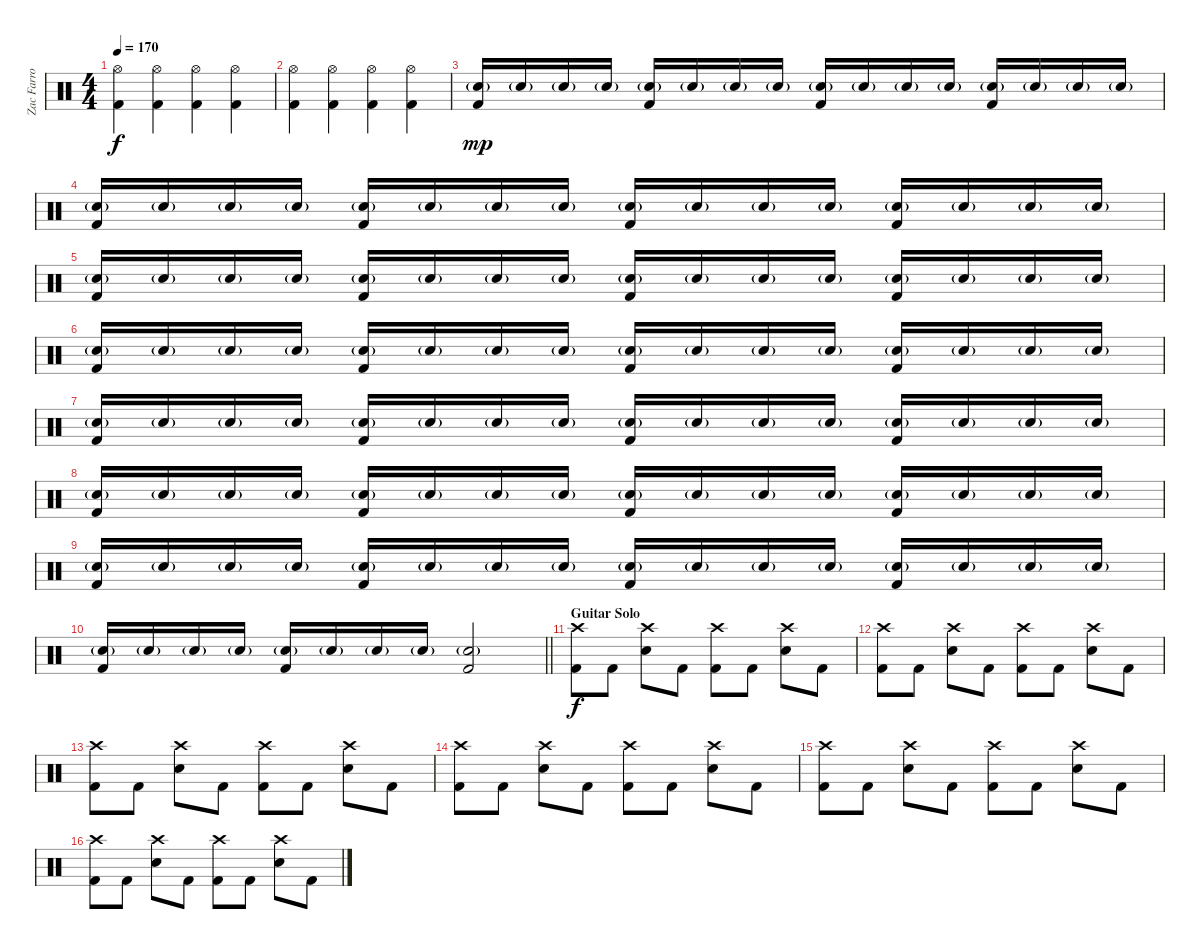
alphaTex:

\track ("Zac Farro (Percussion)" "Zac Farro ") {instrument percussion}
\staff {score}
\articulation defaults
\ts (4 4)
\tempo 170
\clef neutral
\ks c
("Hi-Hat (open)" "Kick (hit) 2").4{dy f} ("Hi-Hat (open)" "Kick (hit) 2").4 ("Hi-Hat (open)" "Kick (hit) 2").4 ("Hi-Hat (open)" "Kick (hit) 2").4 |
("Hi-Hat (open)" "Kick (hit) 2").4 ("Hi-Hat (open)" "Kick (hit) 2").4 ("Hi-Hat (open)" "Kick (hit) 2").4 ("Hi-Hat (open)" "Kick (hit) 2").4 |
("Electric Snare (hit)"{g} "Kick (hit) 2").16{dy mp} "Electric Snare (hit)"{g}.16 "Electric Snare (hit)"{g}.16 "Electric Snare (hit)"{g}.16 ("Electric Snare (hit)"{g} "Kick (hit) 2").16 "Electric Snare (hit)"{g}.16 "Electric Snare (hit)"{g}.16 "Electric Snare (hit)"{g}.16 ("Electric Snare (hit)"{g} "Kick (hit) 2").16 "Electric Snare (hit)"{g}.16 "Electric Snare (hit)"{g}.16 "Electric Snare (hit)"{g}.16 ("Electric Snare (hit)"{g} "Kick (hit) 2").16 "Electric Snare (hit)"{g}.16 "Electric Snare (hit)"{g}.16 "Electric Snare (hit)"{g}.16 |
("Electric Snare (hit)"{g} "Kick (hit) 2").16 "Electric Snare (hit)"{g}.16 "Electric Snare (hit)"{g}.16 "Electric Snare (hit)"{g}.16 ("Electric Snare (hit)"{g} "Kick (hit) 2").16 "Electric Snare (hit)"{g}.16 "Electric Snare (hit)"{g}.16 "Electric Snare (hit)"{g}.16 ("Electric Snare (hit)"{g} "Kick (hit) 2").16 "Electric Snare (hit)"{g}.16 "Electric Snare (hit)"{g}.16 "Electric Snare (hit)"{g}.16 ("Electric Snare (hit)"{g} "Kick (hit) 2").16 "Electric Snare (hit)"{g}.16 "Electric Snare (hit)"{g}.16 "Electric Snare (hit)"{g}.16 |
("Electric Snare (hit)"{g} "Kick (hit) 2").16 "Electric Snare (hit)"{g}.16 "Electric Snare (hit)"{g}.16 "Electric Snare (hit)"{g}.16 ("Electric Snare (hit)"{g} "Kick (hit) 2").16 "Electric Snare (hit)"{g}.16 "Electric Snare (hit)"{g}.16 "Electric Snare (hit)"{g}.16 ("Electric Snare (hit)"{g} "Kick (hit) 2").16 "Electric Snare (hit)"{g}.16 "Electric Snare (hit)"{g}.16 "Electric Snare (hit)"{g}.16 ("Electric Snare (hit)"{g} "Kick (hit) 2").16 "Electric Snare (hit)"{g}.16 "Electric Snare (hit)"{g}.16 "Electric Snare (hit)"{g}.16 |
("Electric Snare (hit)"{g} "Kick (hit) 2").16 "Electric Snare (hit)"{g}.16 "Electric Snare (hit)"{g}.16 "Electric Snare (hit)"{g}.16 ("Electric Snare (hit)"{g} "Kick (hit) 2").16 "Electric Snare (hit)"{g}.16 "Electric Snare (hit)"{g}.16 "Electric Snare (hit)"{g}.16 ("Electric Snare (hit)"{g} "Kick (hit) 2").16 "Electric Snare (hit)"{g}.16 "Electric Snare (hit)"{g}.16 "Electric Snare (hit)"{g}.16 ("Electric Snare (hit)"{g} "Kick (hit) 2").16 "Electric Snare (hit)"{g}.16 "Electric Snare (hit)"{g}.16 "Electric Snare (hit)"{g}.16 |
("Electric Snare (hit)"{g} "Kick (hit) 2").16 "Electric Snare (hit)"{g}.16 "Electric Snare (hit)"{g}.16 "Electric Snare (hit)"{g}.16 ("Electric Snare (hit)"{g} "Kick (hit) 2").16 "Electric Snare (hit)"{g}.16 "Electric Snare (hit)"{g}.16 "Electric Snare (hit)"{g}.16 ("Electric Snare (hit)"{g} "Kick (hit) 2").16 "Electric Snare (hit)"{g}.16 "Electric Snare (hit)"{g}.16 "Electric Snare (hit)"{g}.16 ("Electric Snare (hit)"{g} "Kick (hit) 2").16 "Electric Snare (hit)"{g}.16 "Electric Snare (hit)"{g}.16 "Electric Snare (hit)"{g}.16 |
("Electric Snare (hit)"{g} "Kick (hit) 2").16 "Electric Snare (hit)"{g}.16 "Electric Snare (hit)"{g}.16 "Electric Snare (hit)"{g}.16 ("Electric Snare (hit)"{g} "Kick (hit) 2").16 "Electric Snare (hit)"{g}.16 "Electric Snare (hit)"{g}.16 "Electric Snare (hit)"{g}.16 ("Electric Snare (hit)"{g} "Kick (hit) 2").16 "Electric Snare (hit)"{g}.16 "Electric Snare (hit)"{g}.16 "Electric Snare (hit)"{g}.16 ("Electric Snare (hit)"{g} "Kick (hit) 2").16 "Electric Snare (hit)"{g}.16 "Electric Snare (hit)"{g}.16 "Electric Snare (hit)"{g}.16 |
("Electric Snare (hit)"{g} "Kick (hit) 2").16 "Electric Snare (hit)"{g}.16 "Electric Snare (hit)"{g}.16 "Electric Snare (hit)"{g}.16 ("Electric Snare (hit)"{g} "Kick (hit) 2").16 "Electric Snare (hit)"{g}.16 "Electric Snare (hit)"{g}.16 "Electric Snare (hit)"{g}.16 ("Electric Snare (hit)"{g} "Kick (hit) 2").16 "Electric Snare (hit)"{g}.16 "Electric Snare (hit)"{g}.16 "Electric Snare (hit)"{g}.16 ("Electric Snare (hit)"{g} "Kick (hit) 2").16 "Electric Snare (hit)"{g}.16 "Electric Snare (hit)"{g}.16 "Electric Snare (hit)"{g}.16 |
\barLineRight lightlight
("Electric Snare (hit)"{g} "Kick (hit) 2").16 "Electric Snare (hit)"{g}.16 "Electric Snare (hit)"{g}.16 "Electric Snare (hit)"{g}.16 ("Electric Snare (hit)"{g} "Kick (hit) 2").16 "Electric Snare (hit)"{g}.16 "Electric Snare (hit)"{g}.16 "Electric Snare (hit)"{g}.16 ("Electric Snare (hit)"{g} "Kick (hit) 2").2 |
\section ("" "Guitar Solo")
("Crash high (hit)" "Kick (hit) 2").8{dy f} "Kick (hit) 2".8 ("Crash high (hit)" "Electric Snare (hit)").8 "Kick (hit) 2".8 ("Crash high (hit)" "Kick (hit) 2").8 "Kick (hit) 2".8 ("Crash high (hit)" "Electric Snare (hit)").8 "Kick (hit) 2".8 |
("Crash high (hit)" "Kick (hit) 2").8 "Kick (hit) 2".8 ("Crash high (hit)" "Electric Snare (hit)").8 "Kick (hit) 2".8 ("Crash high (hit)" "Kick (hit) 2").8 "Kick (hit) 2".8 ("Crash high (hit)" "Electric Snare (hit)").8 "Kick (hit) 2".8 |
("Crash high (hit)" "Kick (hit) 2").8 "Kick (hit) 2".8 ("Crash high (hit)" "Electric Snare (hit)").8 "Kick (hit) 2".8 ("Crash high (hit)" "Kick (hit) 2").8 "Kick (hit) 2".8 ("Crash high (hit)" "Electric Snare (hit)").8 "Kick (hit) 2".8 |
("Crash high (hit)" "Kick (hit) 2").8 "Kick (hit) 2".8 ("Crash high (hit)" "Electric Snare (hit)").8 "Kick (hit) 2".8 ("Crash high (hit)" "Kick (hit) 2").8 "Kick (hit) 2".8 ("Crash high (hit)" "Electric Snare (hit)").8 "Kick (hit) 2".8 |
("Crash high (hit)" "Kick (hit) 2").8 "Kick (hit) 2".8 ("Crash high (hit)" "Electric Snare (hit)").8 "Kick (hit) 2".8 ("Crash high (hit)" "Kick (hit) 2").8 "Kick (hit) 2".8 ("Crash high (hit)" "Electric Snare (hit)").8 "Kick (hit) 2".8 |
("Crash high (hit)" "Kick (hit) 2").8 "Kick (hit) 2".8 ("Crash high (hit)" "Electric Snare (hit)").8 "Kick (hit) 2".8 ("Crash high (hit)" "Kick (hit) 2").8 "Kick (hit) 2".8 ("Crash high (hit)" "Electric Snare (hit)").8 "Kick (hit) 2".8
